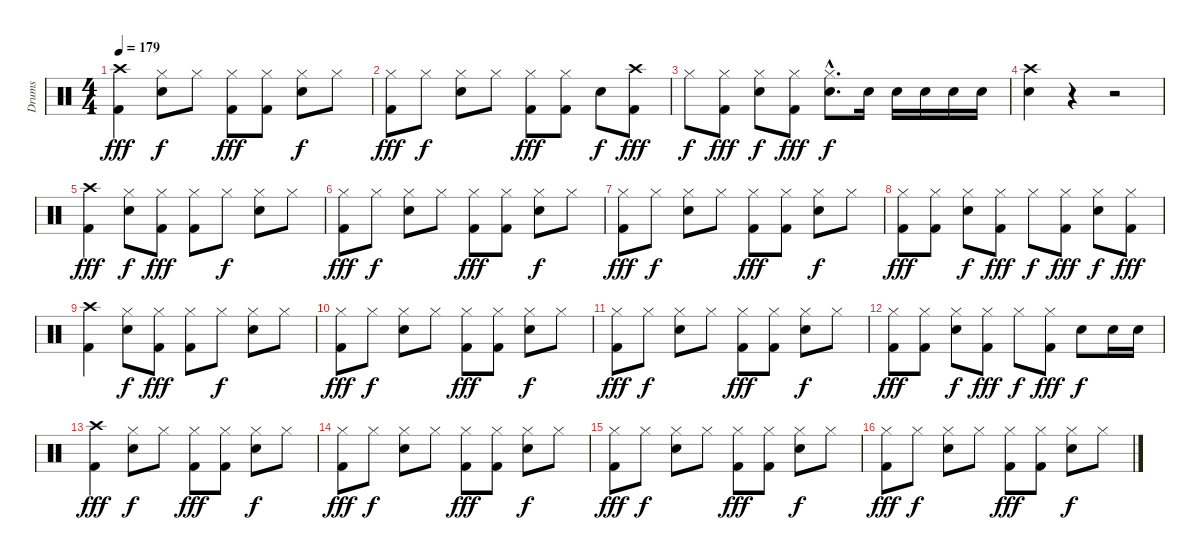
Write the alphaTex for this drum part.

\track ("Drums" "Drums") {instrument percussion}
\staff {score}
\articulation defaults
\ts (4 4)
\tempo 179
\clef neutral
\ks c
("Crash high (hit)" "Kick (hit) 2").4{dy fff} ("Hi-Hat (closed)" "Electric Snare (hit)").8{dy f} "Hi-Hat (closed)".8 ("Hi-Hat (closed)" "Kick (hit) 2").8{dy fff} ("Hi-Hat (closed)" "Kick (hit) 2").8 ("Hi-Hat (closed)" "Electric Snare (hit)").8{dy f} "Hi-Hat (closed)".8 |
("Hi-Hat (closed)" "Kick (hit) 2").8{dy fff} "Hi-Hat (closed)".8{dy f} ("Hi-Hat (closed)" "Electric Snare (hit)").8 "Hi-Hat (closed)".8 ("Hi-Hat (closed)" "Kick (hit) 2").8{dy fff} ("Hi-Hat (closed)" "Kick (hit) 2").8 "Electric Snare (hit)".8{dy f} ("Crash high (hit)" "Kick (hit) 2").8{dy fff} |
"Hi-Hat (closed)".8{dy f} ("Hi-Hat (closed)" "Kick (hit) 2").8{dy fff} ("Hi-Hat (closed)" "Electric Snare (hit)").8{dy f} ("Hi-Hat (closed)" "Kick (hit) 2").8{dy fff} ("Hi-Hat (closed)"{hac} "Electric Snare (hit)"{hac}).8{d dy f} "Electric Snare (hit)".16 "Electric Snare (hit)".16 "Electric Snare (hit)".16 "Electric Snare (hit)".16 "Electric Snare (hit)".16 |
("Crash high (hit)" "Electric Snare (hit)").4 r.4 r.2 |
("Crash high (hit)" "Kick (hit) 2").4{dy fff} ("Hi-Hat (closed)" "Electric Snare (hit)").8{dy f} ("Hi-Hat (closed)" "Kick (hit) 2").8{dy fff} ("Hi-Hat (closed)" "Kick (hit) 2").8 "Hi-Hat (closed)".8{dy f} ("Hi-Hat (closed)" "Electric Snare (hit)").8 "Hi-Hat (closed)".8 |
("Hi-Hat (closed)" "Kick (hit) 2").8{dy fff} "Hi-Hat (closed)".8{dy f} ("Hi-Hat (closed)" "Electric Snare (hit)").8 "Hi-Hat (closed)".8 ("Hi-Hat (closed)" "Kick (hit) 2").8{dy fff} ("Hi-Hat (closed)" "Kick (hit) 2").8 ("Hi-Hat (closed)" "Electric Snare (hit)").8{dy f} "Hi-Hat (closed)".8 |
("Hi-Hat (closed)" "Kick (hit) 2").8{dy fff} "Hi-Hat (closed)".8{dy f} ("Hi-Hat (closed)" "Electric Snare (hit)").8 "Hi-Hat (closed)".8 ("Hi-Hat (closed)" "Kick (hit) 2").8{dy fff} ("Hi-Hat (closed)" "Kick (hit) 2").8 ("Hi-Hat (closed)" "Electric Snare (hit)").8{dy f} "Hi-Hat (closed)".8 |
("Hi-Hat (closed)" "Kick (hit) 2").8{dy fff} ("Hi-Hat (closed)" "Kick (hit) 2").8 ("Hi-Hat (closed)" "Electric Snare (hit)").8{dy f} ("Hi-Hat (closed)" "Kick (hit) 2").8{dy fff} "Hi-Hat (closed)".8{dy f} ("Hi-Hat (closed)" "Kick (hit) 2").8{dy fff} ("Hi-Hat (closed)" "Electric Snare (hit)").8{dy f} ("Hi-Hat (closed)" "Kick (hit) 2").8{dy fff} |
("Crash high (hit)" "Kick (hit) 2").4 ("Hi-Hat (closed)" "Electric Snare (hit)").8{dy f} ("Hi-Hat (closed)" "Kick (hit) 2").8{dy fff} ("Hi-Hat (closed)" "Kick (hit) 2").8 "Hi-Hat (closed)".8{dy f} ("Hi-Hat (closed)" "Electric Snare (hit)").8 "Hi-Hat (closed)".8 |
("Hi-Hat (closed)" "Kick (hit) 2").8{dy fff} "Hi-Hat (closed)".8{dy f} ("Hi-Hat (closed)" "Electric Snare (hit)").8 "Hi-Hat (closed)".8 ("Hi-Hat (closed)" "Kick (hit) 2").8{dy fff} ("Hi-Hat (closed)" "Kick (hit) 2").8 ("Hi-Hat (closed)" "Electric Snare (hit)").8{dy f} "Hi-Hat (closed)".8 |
("Hi-Hat (closed)" "Kick (hit) 2").8{dy fff} "Hi-Hat (closed)".8{dy f} ("Hi-Hat (closed)" "Electric Snare (hit)").8 "Hi-Hat (closed)".8 ("Hi-Hat (closed)" "Kick (hit) 2").8{dy fff} ("Hi-Hat (closed)" "Kick (hit) 2").8 ("Hi-Hat (closed)" "Electric Snare (hit)").8{dy f} "Hi-Hat (closed)".8 |
("Hi-Hat (closed)" "Kick (hit) 2").8{dy fff} ("Hi-Hat (closed)" "Kick (hit) 2").8 ("Hi-Hat (closed)" "Electric Snare (hit)").8{dy f} ("Hi-Hat (closed)" "Kick (hit) 2").8{dy fff} "Hi-Hat (closed)".8{dy f} ("Hi-Hat (closed)" "Kick (hit) 2").8{dy fff} "Electric Snare (hit)".8{dy f} "Electric Snare (hit)".16 "Electric Snare (hit)".16 |
("Crash high (hit)" "Kick (hit) 2").4{dy fff} ("Hi-Hat (closed)" "Electric Snare (hit)").8{dy f} "Hi-Hat (closed)".8 ("Hi-Hat (closed)" "Kick (hit) 2").8{dy fff} ("Hi-Hat (closed)" "Kick (hit) 2").8 ("Hi-Hat (closed)" "Electric Snare (hit)").8{dy f} "Hi-Hat (closed)".8 |
("Hi-Hat (closed)" "Kick (hit) 2").8{dy fff} "Hi-Hat (closed)".8{dy f} ("Hi-Hat (closed)" "Electric Snare (hit)").8 "Hi-Hat (closed)".8 ("Hi-Hat (closed)" "Kick (hit) 2").8{dy fff} ("Hi-Hat (closed)" "Kick (hit) 2").8 ("Hi-Hat (closed)" "Electric Snare (hit)").8{dy f} "Hi-Hat (closed)".8 |
("Hi-Hat (closed)" "Kick (hit) 2").8{dy fff} "Hi-Hat (closed)".8{dy f} ("Hi-Hat (closed)" "Electric Snare (hit)").8 "Hi-Hat (closed)".8 ("Hi-Hat (closed)" "Kick (hit) 2").8{dy fff} ("Hi-Hat (closed)" "Kick (hit) 2").8 ("Hi-Hat (closed)" "Electric Snare (hit)").8{dy f} "Hi-Hat (closed)".8 |
("Hi-Hat (closed)" "Kick (hit) 2").8{dy fff} "Hi-Hat (closed)".8{dy f} ("Hi-Hat (closed)" "Electric Snare (hit)").8 "Hi-Hat (closed)".8 ("Hi-Hat (closed)" "Kick (hit) 2").8{dy fff} ("Hi-Hat (closed)" "Kick (hit) 2").8 ("Hi-Hat (closed)" "Electric Snare (hit)").8{dy f} "Hi-Hat (closed)".8
